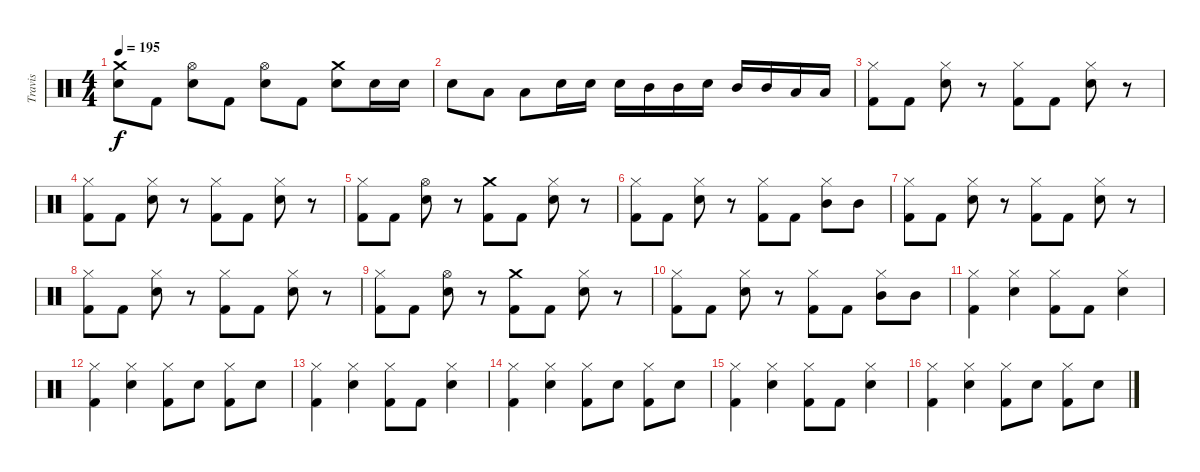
\track ("Travis" "Travis") {instrument percussion}
\staff {score}
\articulation defaults
\ts (4 4)
\tempo 195
\clef neutral
\ks c
("Crash medium (hit)" "Electric Snare (hit)").8{dy f} "Kick (hit) 2".8 ("Hi-Hat (open)" "Electric Snare (hit)").8 "Kick (hit) 2".8 ("Hi-Hat (open)" "Electric Snare (hit)").8 "Kick (hit) 2".8 ("Electric Snare (hit)" "Crash medium (hit)").8 "Electric Snare (hit)".16 "Electric Snare (hit)".16 |
"Electric Snare (hit)".8 "Low Floor Tom (hit)".8 "Low Floor Tom (hit)".8 "Electric Snare (hit)".16 "Electric Snare (hit)".16 "Electric Snare (hit)".16 "Mid Tom (hit)".16 "Mid Tom (hit)".16 "Electric Snare (hit)".16 "Mid Tom (hit)".16 "Mid Tom (hit)".16 "Low Floor Tom (hit)".16 "Low Floor Tom (hit)".16 |
("Kick (hit) 2" "Hi-Hat (closed)").8 "Kick (hit) 2".8 ("Electric Snare (hit)" "Hi-Hat (closed)").8 r.8 ("Kick (hit) 2" "Hi-Hat (closed)").8 "Kick (hit) 2".8 ("Electric Snare (hit)" "Hi-Hat (closed)").8 r.8 |
("Kick (hit) 2" "Hi-Hat (closed)").8 "Kick (hit) 2".8 ("Electric Snare (hit)" "Hi-Hat (closed)").8 r.8 ("Kick (hit) 2" "Hi-Hat (closed)").8 "Kick (hit) 2".8 ("Electric Snare (hit)" "Hi-Hat (closed)").8 r.8 |
("Kick (hit) 2" "Hi-Hat (closed)").8 "Kick (hit) 2".8 ("Electric Snare (hit)" "Hi-Hat (open)").8 r.8 ("Kick (hit) 2" "Crash medium (hit)").8 "Kick (hit) 2".8 ("Electric Snare (hit)" "Hi-Hat (closed)").8 r.8 |
("Kick (hit) 2" "Hi-Hat (closed)").8 "Kick (hit) 2".8 ("Electric Snare (hit)" "Hi-Hat (closed)").8 r.8 ("Kick (hit) 2" "Hi-Hat (closed)").8 "Kick (hit) 2".8 ("Mid Tom (hit)" "Hi-Hat (closed)").8 "Mid Tom (hit)".8 |
("Kick (hit) 2" "Hi-Hat (closed)").8 "Kick (hit) 2".8 ("Electric Snare (hit)" "Hi-Hat (closed)").8 r.8 ("Kick (hit) 2" "Hi-Hat (closed)").8 "Kick (hit) 2".8 ("Electric Snare (hit)" "Hi-Hat (closed)").8 r.8 |
("Kick (hit) 2" "Hi-Hat (closed)").8 "Kick (hit) 2".8 ("Electric Snare (hit)" "Hi-Hat (closed)").8 r.8 ("Kick (hit) 2" "Hi-Hat (closed)").8 "Kick (hit) 2".8 ("Electric Snare (hit)" "Hi-Hat (closed)").8 r.8 |
("Kick (hit) 2" "Hi-Hat (closed)").8 "Kick (hit) 2".8 ("Electric Snare (hit)" "Hi-Hat (open)").8 r.8 ("Kick (hit) 2" "Crash medium (hit)").8 "Kick (hit) 2".8 ("Electric Snare (hit)" "Hi-Hat (closed)").8 r.8 |
("Kick (hit) 2" "Hi-Hat (closed)").8 "Kick (hit) 2".8 ("Electric Snare (hit)" "Hi-Hat (closed)").8 r.8 ("Kick (hit) 2" "Hi-Hat (closed)").8 "Kick (hit) 2".8 ("Mid Tom (hit)" "Hi-Hat (closed)").8 "Mid Tom (hit)".8 |
("Kick (hit) 2" "Hi-Hat (closed)").4 ("Electric Snare (hit)" "Hi-Hat (closed)").4 ("Kick (hit) 2" "Hi-Hat (closed)").8 "Kick (hit) 2".8 ("Electric Snare (hit)" "Hi-Hat (closed)").4 |
("Kick (hit) 2" "Hi-Hat (closed)").4 ("Electric Snare (hit)" "Hi-Hat (closed)").4 ("Kick (hit) 2" "Hi-Hat (closed)").8 "Electric Snare (hit)".8 ("Kick (hit) 2" "Hi-Hat (closed)").8 "Electric Snare (hit)".8 |
("Kick (hit) 2" "Hi-Hat (closed)").4 ("Electric Snare (hit)" "Hi-Hat (closed)").4 ("Kick (hit) 2" "Hi-Hat (closed)").8 "Kick (hit) 2".8 ("Electric Snare (hit)" "Hi-Hat (closed)").4 |
("Kick (hit) 2" "Hi-Hat (closed)").4 ("Electric Snare (hit)" "Hi-Hat (closed)").4 ("Kick (hit) 2" "Hi-Hat (closed)").8 "Electric Snare (hit)".8 ("Kick (hit) 2" "Hi-Hat (closed)").8 "Electric Snare (hit)".8 |
("Kick (hit) 2" "Hi-Hat (closed)").4 ("Electric Snare (hit)" "Hi-Hat (closed)").4 ("Kick (hit) 2" "Hi-Hat (closed)").8 "Kick (hit) 2".8 ("Electric Snare (hit)" "Hi-Hat (closed)").4 |
("Kick (hit) 2" "Hi-Hat (closed)").4 ("Electric Snare (hit)" "Hi-Hat (closed)").4 ("Kick (hit) 2" "Hi-Hat (closed)").8 "Electric Snare (hit)".8 ("Kick (hit) 2" "Hi-Hat (closed)").8 "Electric Snare (hit)".8
